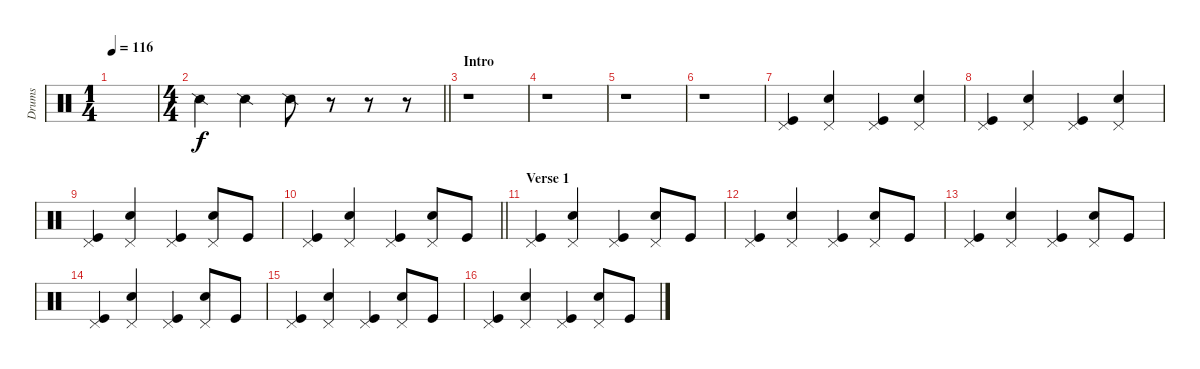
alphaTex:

\track ("Drums" "Drums") {instrument percussion}
\staff {score}
\articulation defaults
\ts (1 4)
\tempo 116
\clef neutral
\ks c
|
\ts (4 4)
\barLineRight lightlight "Snare (side stick) 2".4 "Snare (side stick) 2".4 "Snare (side stick) 2".8
r.8 r.8 r.8 |
\section ("" "Intro")
r.1 |
r.1 |
r.1 |
r.1 |
("Pedal Hi-Hat (hit)" "Kick (hit)").4 ("Pedal Hi-Hat (hit)" "Electric Snare (hit)").4 ("Pedal Hi-Hat (hit)" "Kick (hit)").4 ("Pedal Hi-Hat (hit)" "Electric Snare (hit)").4 |
("Pedal Hi-Hat (hit)" "Kick (hit)").4 ("Pedal Hi-Hat (hit)" "Electric Snare (hit)").4 ("Pedal Hi-Hat (hit)" "Kick (hit)").4 ("Pedal Hi-Hat (hit)" "Electric Snare (hit)").4 |
("Pedal Hi-Hat (hit)" "Kick (hit)").4 ("Pedal Hi-Hat (hit)" "Electric Snare (hit)").4 ("Pedal Hi-Hat (hit)" "Kick (hit)").4 ("Pedal Hi-Hat (hit)" "Electric Snare (hit)").8 "Kick (hit)".8 |
\barLineRight lightlight
("Pedal Hi-Hat (hit)" "Kick (hit)").4 ("Pedal Hi-Hat (hit)" "Electric Snare (hit)").4 ("Pedal Hi-Hat (hit)" "Kick (hit)").4 ("Pedal Hi-Hat (hit)" "Electric Snare (hit)").8 "Kick (hit)".8 |
\section ("" "Verse 1")
("Pedal Hi-Hat (hit)" "Kick (hit)").4 ("Pedal Hi-Hat (hit)" "Electric Snare (hit)").4 ("Pedal Hi-Hat (hit)" "Kick (hit)").4 ("Pedal Hi-Hat (hit)" "Electric Snare (hit)").8 "Kick (hit)".8 |
("Pedal Hi-Hat (hit)" "Kick (hit)").4 ("Pedal Hi-Hat (hit)" "Electric Snare (hit)").4 ("Pedal Hi-Hat (hit)" "Kick (hit)").4 ("Pedal Hi-Hat (hit)" "Electric Snare (hit)").8 "Kick (hit)".8 |
("Pedal Hi-Hat (hit)" "Kick (hit)").4 ("Pedal Hi-Hat (hit)" "Electric Snare (hit)").4 ("Pedal Hi-Hat (hit)" "Kick (hit)").4 ("Pedal Hi-Hat (hit)" "Electric Snare (hit)").8 "Kick (hit)".8 |
("Pedal Hi-Hat (hit)" "Kick (hit)").4 ("Pedal Hi-Hat (hit)" "Electric Snare (hit)").4 ("Pedal Hi-Hat (hit)" "Kick (hit)").4 ("Pedal Hi-Hat (hit)" "Electric Snare (hit)").8 "Kick (hit)".8 |
("Pedal Hi-Hat (hit)" "Kick (hit)").4 ("Pedal Hi-Hat (hit)" "Electric Snare (hit)").4 ("Pedal Hi-Hat (hit)" "Kick (hit)").4 ("Pedal Hi-Hat (hit)" "Electric Snare (hit)").8 "Kick (hit)".8 |
("Pedal Hi-Hat (hit)" "Kick (hit)").4 ("Pedal Hi-Hat (hit)" "Electric Snare (hit)").4 ("Pedal Hi-Hat (hit)" "Kick (hit)").4 ("Pedal Hi-Hat (hit)" "Electric Snare (hit)").8 "Kick (hit)".8
